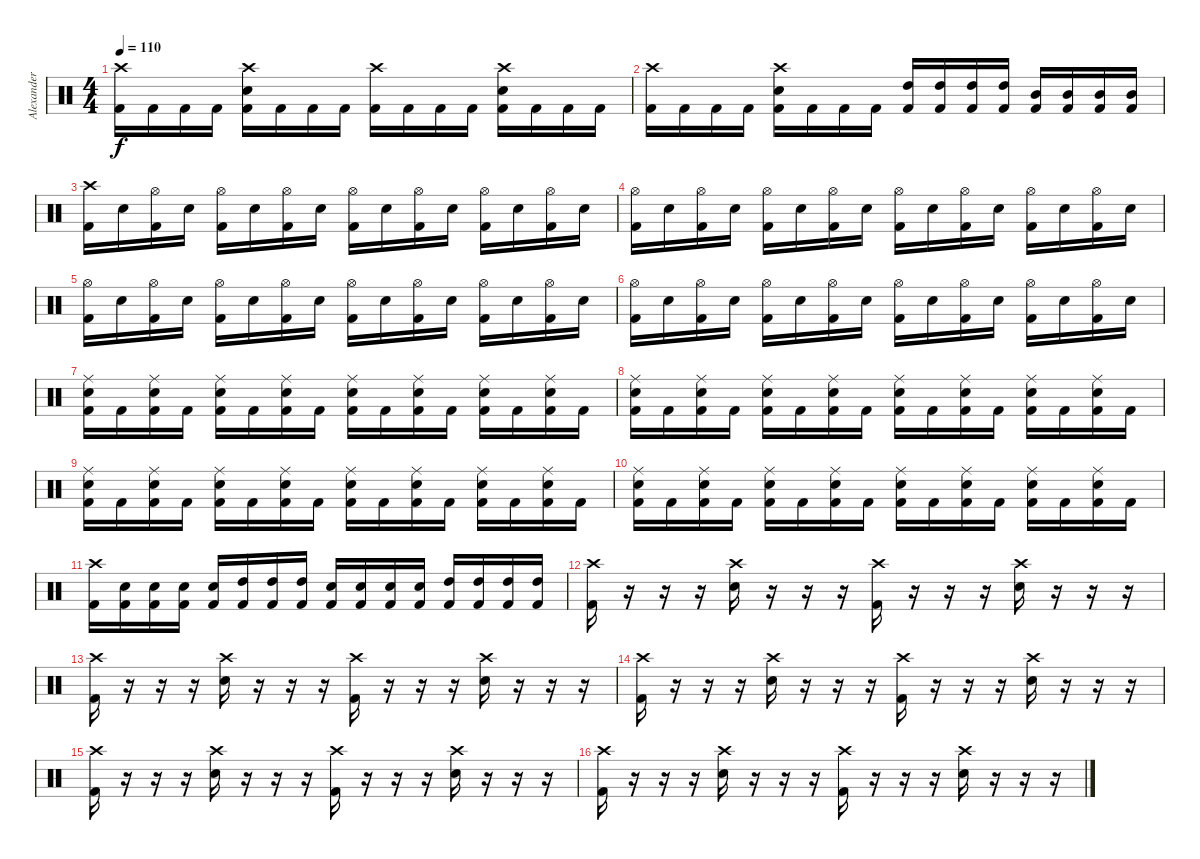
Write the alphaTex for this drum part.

\track ("Alexander C." "Alexander ") {instrument percussion}
\staff {score}
\articulation defaults
\ts (4 4)
\tempo 110
\clef neutral
\ks c
("Crash high (hit)" "Kick (hit) 2").16{dy f} "Kick (hit) 2".16 "Kick (hit) 2".16 "Kick (hit) 2".16 ("Crash high (hit)" "Snare (hit) 2" "Kick (hit) 2").16 "Kick (hit) 2".16 "Kick (hit) 2".16 "Kick (hit) 2".16 ("Crash high (hit)" "Kick (hit) 2").16 "Kick (hit) 2".16 "Kick (hit) 2".16 "Kick (hit) 2".16 ("Crash high (hit)" "Snare (hit) 2" "Kick (hit) 2").16 "Kick (hit) 2".16 "Kick (hit) 2".16 "Kick (hit) 2".16 |
("Crash high (hit)" "Kick (hit) 2").16 "Kick (hit) 2".16 "Kick (hit) 2".16 "Kick (hit) 2".16 ("Crash high (hit)" "Snare (hit) 2" "Kick (hit) 2").16 "Kick (hit) 2".16 "Kick (hit) 2".16 "Kick (hit) 2".16 ("High Tom (hit)" "Kick (hit) 2").16 ("High Tom (hit)" "Kick (hit) 2").16 ("High Tom (hit)" "Kick (hit) 2").16 ("High Tom (hit)" "Kick (hit) 2").16 ("Mid Tom (hit)" "Kick (hit) 2").16 ("Mid Tom (hit)" "Kick (hit) 2").16 ("Mid Tom (hit)" "Kick (hit) 2").16 ("Mid Tom (hit)" "Kick (hit) 2").16 |
("Crash high (hit)" "Kick (hit) 2").16 "Snare (hit) 2".16 ("Hi-Hat (open)" "Kick (hit) 2").16 "Snare (hit) 2".16 ("Hi-Hat (open)" "Kick (hit) 2").16 "Snare (hit) 2".16 ("Hi-Hat (open)" "Kick (hit) 2").16 "Snare (hit) 2".16 ("Hi-Hat (open)" "Kick (hit) 2").16 "Snare (hit) 2".16 ("Hi-Hat (open)" "Kick (hit) 2").16 "Snare (hit) 2".16 ("Hi-Hat (open)" "Kick (hit) 2").16 "Snare (hit) 2".16 ("Hi-Hat (open)" "Kick (hit) 2").16 "Snare (hit) 2".16 |
("Hi-Hat (open)" "Kick (hit) 2").16 "Snare (hit) 2".16 ("Hi-Hat (open)" "Kick (hit) 2").16 "Snare (hit) 2".16 ("Hi-Hat (open)" "Kick (hit) 2").16 "Snare (hit) 2".16 ("Hi-Hat (open)" "Kick (hit) 2").16 "Snare (hit) 2".16 ("Hi-Hat (open)" "Kick (hit) 2").16 "Snare (hit) 2".16 ("Hi-Hat (open)" "Kick (hit) 2").16 "Snare (hit) 2".16 ("Hi-Hat (open)" "Kick (hit) 2").16 "Snare (hit) 2".16 ("Hi-Hat (open)" "Kick (hit) 2").16 "Snare (hit) 2".16 |
("Hi-Hat (open)" "Kick (hit) 2").16 "Snare (hit) 2".16 ("Hi-Hat (open)" "Kick (hit) 2").16 "Snare (hit) 2".16 ("Hi-Hat (open)" "Kick (hit) 2").16 "Snare (hit) 2".16 ("Hi-Hat (open)" "Kick (hit) 2").16 "Snare (hit) 2".16 ("Hi-Hat (open)" "Kick (hit) 2").16 "Snare (hit) 2".16 ("Hi-Hat (open)" "Kick (hit) 2").16 "Snare (hit) 2".16 ("Hi-Hat (open)" "Kick (hit) 2").16 "Snare (hit) 2".16 ("Hi-Hat (open)" "Kick (hit) 2").16 "Snare (hit) 2".16 |
("Hi-Hat (open)" "Kick (hit) 2").16 "Snare (hit) 2".16 ("Hi-Hat (open)" "Kick (hit) 2").16 "Snare (hit) 2".16 ("Hi-Hat (open)" "Kick (hit) 2").16 "Snare (hit) 2".16 ("Hi-Hat (open)" "Kick (hit) 2").16 "Snare (hit) 2".16 ("Hi-Hat (open)" "Kick (hit) 2").16 "Snare (hit) 2".16 ("Hi-Hat (open)" "Kick (hit) 2").16 "Snare (hit) 2".16 ("Hi-Hat (open)" "Kick (hit) 2").16 "Snare (hit) 2".16 ("Hi-Hat (open)" "Kick (hit) 2").16 "Snare (hit) 2".16 |
("Ride (middle)" "Snare (hit) 2" "Kick (hit) 2").16 "Kick (hit) 2".16 ("Ride (middle)" "Snare (hit) 2" "Kick (hit) 2").16 "Kick (hit) 2".16 ("Ride (middle)" "Snare (hit) 2" "Kick (hit) 2").16 "Kick (hit) 2".16 ("Ride (middle)" "Snare (hit) 2" "Kick (hit) 2").16 "Kick (hit) 2".16 ("Ride (middle)" "Snare (hit) 2" "Kick (hit) 2").16 "Kick (hit) 2".16 ("Ride (middle)" "Snare (hit) 2" "Kick (hit) 2").16 "Kick (hit) 2".16 ("Ride (middle)" "Snare (hit) 2" "Kick (hit) 2").16 "Kick (hit) 2".16 ("Ride (middle)" "Snare (hit) 2" "Kick (hit) 2").16 "Kick (hit) 2".16 |
("Ride (middle)" "Snare (hit) 2" "Kick (hit) 2").16 "Kick (hit) 2".16 ("Ride (middle)" "Snare (hit) 2" "Kick (hit) 2").16 "Kick (hit) 2".16 ("Ride (middle)" "Snare (hit) 2" "Kick (hit) 2").16 "Kick (hit) 2".16 ("Ride (middle)" "Snare (hit) 2" "Kick (hit) 2").16 "Kick (hit) 2".16 ("Ride (middle)" "Snare (hit) 2" "Kick (hit) 2").16 "Kick (hit) 2".16 ("Ride (middle)" "Snare (hit) 2" "Kick (hit) 2").16 "Kick (hit) 2".16 ("Ride (middle)" "Snare (hit) 2" "Kick (hit) 2").16 "Kick (hit) 2".16 ("Ride (middle)" "Snare (hit) 2" "Kick (hit) 2").16 "Kick (hit) 2".16 |
("Ride (middle)" "Snare (hit) 2" "Kick (hit) 2").16 "Kick (hit) 2".16 ("Ride (middle)" "Snare (hit) 2" "Kick (hit) 2").16 "Kick (hit) 2".16 ("Ride (middle)" "Snare (hit) 2" "Kick (hit) 2").16 "Kick (hit) 2".16 ("Ride (middle)" "Snare (hit) 2" "Kick (hit) 2").16 "Kick (hit) 2".16 ("Ride (middle)" "Snare (hit) 2" "Kick (hit) 2").16 "Kick (hit) 2".16 ("Ride (middle)" "Snare (hit) 2" "Kick (hit) 2").16 "Kick (hit) 2".16 ("Ride (middle)" "Snare (hit) 2" "Kick (hit) 2").16 "Kick (hit) 2".16 ("Ride (middle)" "Snare (hit) 2" "Kick (hit) 2").16 "Kick (hit) 2".16 |
("Ride (middle)" "Snare (hit) 2" "Kick (hit) 2").16 "Kick (hit) 2".16 ("Ride (middle)" "Snare (hit) 2" "Kick (hit) 2").16 "Kick (hit) 2".16 ("Ride (middle)" "Snare (hit) 2" "Kick (hit) 2").16 "Kick (hit) 2".16 ("Ride (middle)" "Snare (hit) 2" "Kick (hit) 2").16 "Kick (hit) 2".16 ("Ride (middle)" "Snare (hit) 2" "Kick (hit) 2").16 "Kick (hit) 2".16 ("Ride (middle)" "Snare (hit) 2" "Kick (hit) 2").16 "Kick (hit) 2".16 ("Ride (middle)" "Snare (hit) 2" "Kick (hit) 2").16 "Kick (hit) 2".16 ("Ride (middle)" "Snare (hit) 2" "Kick (hit) 2").16 "Kick (hit) 2".16 |
("Crash high (hit)" "Kick (hit) 2").16 ("Snare (hit) 2" "Kick (hit) 2").16 ("Snare (hit) 2" "Kick (hit) 2").16 ("Snare (hit) 2" "Kick (hit) 2").16 ("Snare (hit) 2" "Kick (hit) 2").16 ("High Tom (hit)" "Kick (hit) 2").16 ("High Tom (hit)" "Kick (hit) 2").16 ("High Tom (hit)" "Kick (hit) 2").16 ("Snare (hit) 2" "Kick (hit) 2").16 ("Snare (hit) 2" "Kick (hit) 2").16 ("Snare (hit) 2" "Kick (hit) 2").16 ("Snare (hit) 2" "Kick (hit) 2").16 ("High Tom (hit)" "Kick (hit) 2").16 ("High Tom (hit)" "Kick (hit) 2").16 ("High Tom (hit)" "Kick (hit) 2").16 ("High Tom (hit)" "Kick (hit) 2").16 |
("Crash high (hit)" "Kick (hit) 2").16 r.16 r.16 r.16 ("Crash high (hit)" "Snare (hit) 2").16 r.16 r.16 r.16 ("Crash high (hit)" "Kick (hit) 2").16 r.16 r.16 r.16 ("Crash high (hit)" "Snare (hit) 2").16 r.16 r.16 r.16 |
("Crash high (hit)" "Kick (hit) 2").16 r.16 r.16 r.16 ("Crash high (hit)" "Snare (hit) 2").16 r.16 r.16 r.16 ("Crash high (hit)" "Kick (hit) 2").16 r.16 r.16 r.16 ("Crash high (hit)" "Snare (hit) 2").16 r.16 r.16 r.16 |
("Crash high (hit)" "Kick (hit) 2").16 r.16 r.16 r.16 ("Crash high (hit)" "Snare (hit) 2").16 r.16 r.16 r.16 ("Crash high (hit)" "Kick (hit) 2").16 r.16 r.16 r.16 ("Crash high (hit)" "Snare (hit) 2").16 r.16 r.16 r.16 |
("Crash high (hit)" "Kick (hit) 2").16 r.16 r.16 r.16 ("Crash high (hit)" "Snare (hit) 2").16 r.16 r.16 r.16 ("Crash high (hit)" "Kick (hit) 2").16 r.16 r.16 r.16 ("Crash high (hit)" "Snare (hit) 2").16 r.16 r.16 r.16 |
("Crash high (hit)" "Kick (hit) 2").16 r.16 r.16 r.16 ("Crash high (hit)" "Snare (hit) 2").16 r.16 r.16 r.16 ("Crash high (hit)" "Kick (hit) 2").16 r.16 r.16 r.16 ("Crash high (hit)" "Snare (hit) 2").16 r.16 r.16 r.16
